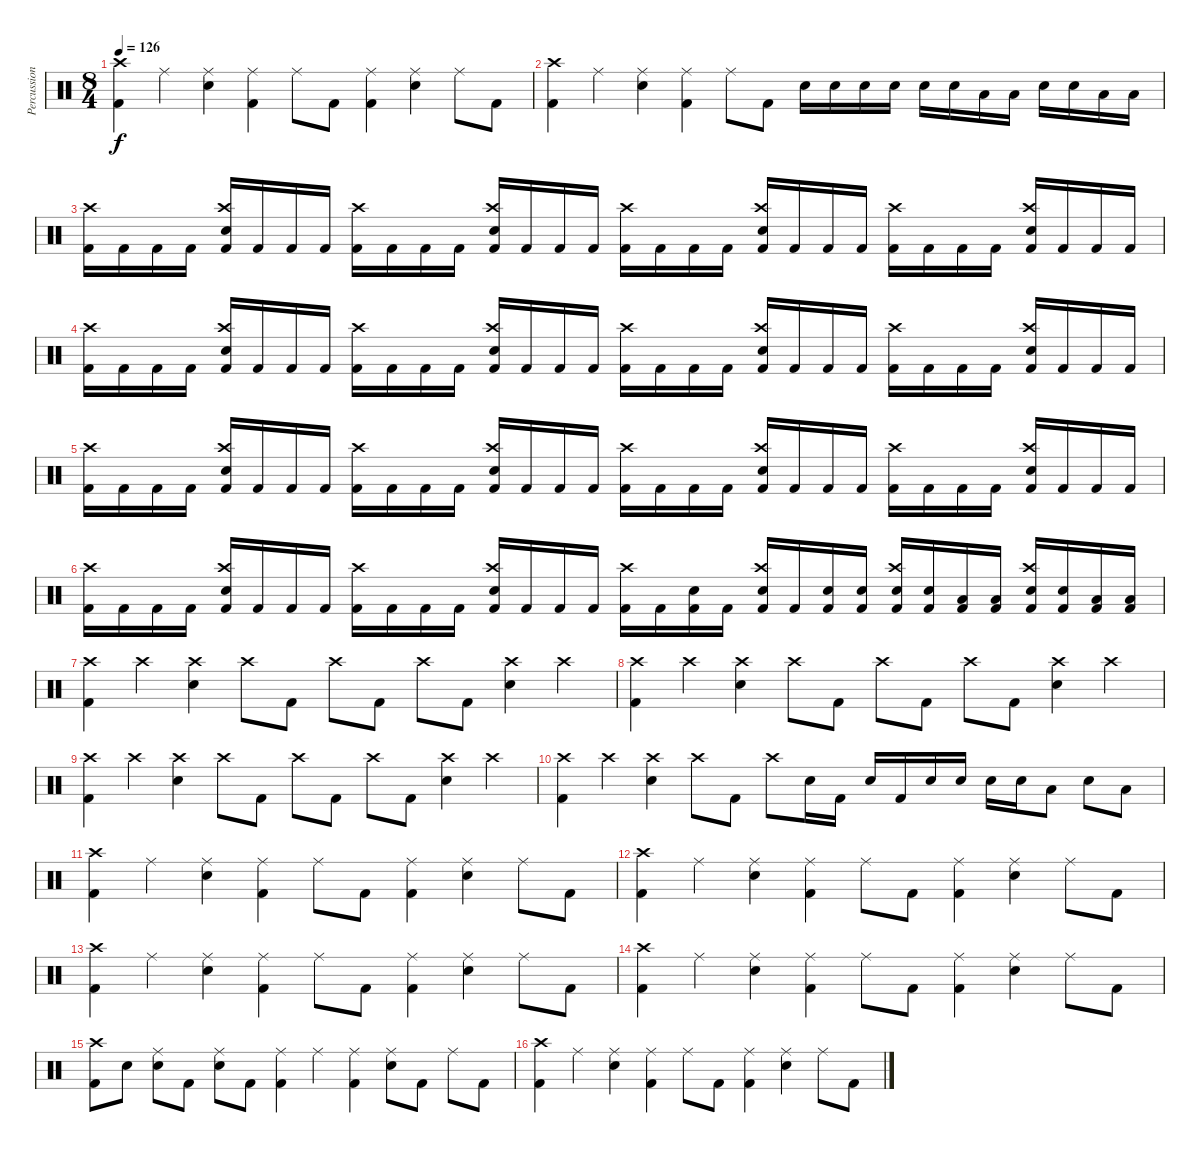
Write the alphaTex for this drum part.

\track ("Percussion" "Percussion") {instrument percussion}
\staff {score}
\articulation defaults
\ts (8 4)
\tempo 126
\clef neutral
\ks c
("Kick (hit) 2" "Crash high (hit)").4{dy f} "Ride (middle)".4 ("Electric Snare (hit)" "Ride (middle)").4 ("Kick (hit) 2" "Ride (middle)").4 "Ride (middle)".8 "Kick (hit) 2".8 ("Kick (hit) 2" "Ride (middle)").4 ("Electric Snare (hit)" "Ride (middle)").4 "Ride (middle)".8 "Kick (hit) 2".8 |
("Kick (hit) 2" "Crash high (hit)").4 "Ride (middle)".4 ("Electric Snare (hit)" "Ride (middle)").4 ("Kick (hit) 2" "Ride (middle)").4 "Ride (middle)".8 "Kick (hit) 2".8 "Electric Snare (hit)".16 "Electric Snare (hit)".16 "Electric Snare (hit)".16 "Electric Snare (hit)".16 "Electric Snare (hit)".16 "Electric Snare (hit)".16 "Low Tom (hit)".16 "Low Tom (hit)".16 "Electric Snare (hit)".16 "Electric Snare (hit)".16 "Low Tom (hit)".16 "Low Tom (hit)".16 |
("Kick (hit) 2" "Crash high (hit)").16 "Kick (hit) 2".16 "Kick (hit) 2".16 "Kick (hit) 2".16 ("Kick (hit) 2" "Electric Snare (hit)" "Crash high (hit)").16 "Kick (hit) 2".16 "Kick (hit) 2".16 "Kick (hit) 2".16 ("Kick (hit) 2" "Crash high (hit)").16 "Kick (hit) 2".16 "Kick (hit) 2".16 "Kick (hit) 2".16 ("Kick (hit) 2" "Electric Snare (hit)" "Crash high (hit)").16 "Kick (hit) 2".16 "Kick (hit) 2".16 "Kick (hit) 2".16 ("Kick (hit) 2" "Crash high (hit)").16 "Kick (hit) 2".16 "Kick (hit) 2".16 "Kick (hit) 2".16 ("Kick (hit) 2" "Electric Snare (hit)" "Crash high (hit)").16 "Kick (hit) 2".16 "Kick (hit) 2".16 "Kick (hit) 2".16 ("Kick (hit) 2" "Crash high (hit)").16 "Kick (hit) 2".16 "Kick (hit) 2".16 "Kick (hit) 2".16 ("Kick (hit) 2" "Electric Snare (hit)" "Crash high (hit)").16 "Kick (hit) 2".16 "Kick (hit) 2".16 "Kick (hit) 2".16 |
("Kick (hit) 2" "Crash high (hit)").16 "Kick (hit) 2".16 "Kick (hit) 2".16 "Kick (hit) 2".16 ("Kick (hit) 2" "Electric Snare (hit)" "Crash high (hit)").16 "Kick (hit) 2".16 "Kick (hit) 2".16 "Kick (hit) 2".16 ("Kick (hit) 2" "Crash high (hit)").16 "Kick (hit) 2".16 "Kick (hit) 2".16 "Kick (hit) 2".16 ("Kick (hit) 2" "Electric Snare (hit)" "Crash high (hit)").16 "Kick (hit) 2".16 "Kick (hit) 2".16 "Kick (hit) 2".16 ("Kick (hit) 2" "Crash high (hit)").16 "Kick (hit) 2".16 "Kick (hit) 2".16 "Kick (hit) 2".16 ("Kick (hit) 2" "Electric Snare (hit)" "Crash high (hit)").16 "Kick (hit) 2".16 "Kick (hit) 2".16 "Kick (hit) 2".16 ("Kick (hit) 2" "Crash high (hit)").16 "Kick (hit) 2".16 "Kick (hit) 2".16 "Kick (hit) 2".16 ("Kick (hit) 2" "Electric Snare (hit)" "Crash high (hit)").16 "Kick (hit) 2".16 "Kick (hit) 2".16 "Kick (hit) 2".16 |
("Kick (hit) 2" "Crash high (hit)").16 "Kick (hit) 2".16 "Kick (hit) 2".16 "Kick (hit) 2".16 ("Kick (hit) 2" "Electric Snare (hit)" "Crash high (hit)").16 "Kick (hit) 2".16 "Kick (hit) 2".16 "Kick (hit) 2".16 ("Kick (hit) 2" "Crash high (hit)").16 "Kick (hit) 2".16 "Kick (hit) 2".16 "Kick (hit) 2".16 ("Kick (hit) 2" "Electric Snare (hit)" "Crash high (hit)").16 "Kick (hit) 2".16 "Kick (hit) 2".16 "Kick (hit) 2".16 ("Kick (hit) 2" "Crash high (hit)").16 "Kick (hit) 2".16 "Kick (hit) 2".16 "Kick (hit) 2".16 ("Kick (hit) 2" "Electric Snare (hit)" "Crash high (hit)").16 "Kick (hit) 2".16 "Kick (hit) 2".16 "Kick (hit) 2".16 ("Kick (hit) 2" "Crash high (hit)").16 "Kick (hit) 2".16 "Kick (hit) 2".16 "Kick (hit) 2".16 ("Kick (hit) 2" "Electric Snare (hit)" "Crash high (hit)").16 "Kick (hit) 2".16 "Kick (hit) 2".16 "Kick (hit) 2".16 |
("Kick (hit) 2" "Crash high (hit)").16 "Kick (hit) 2".16 "Kick (hit) 2".16 "Kick (hit) 2".16 ("Kick (hit) 2" "Electric Snare (hit)" "Crash high (hit)").16 "Kick (hit) 2".16 "Kick (hit) 2".16 "Kick (hit) 2".16 ("Kick (hit) 2" "Crash high (hit)").16 "Kick (hit) 2".16 "Kick (hit) 2".16 "Kick (hit) 2".16 ("Kick (hit) 2" "Electric Snare (hit)" "Crash high (hit)").16 "Kick (hit) 2".16 "Kick (hit) 2".16 "Kick (hit) 2".16 ("Kick (hit) 2" "Crash high (hit)").16 "Kick (hit) 2".16 ("Kick (hit) 2" "Electric Snare (hit)").16 "Kick (hit) 2".16 ("Kick (hit) 2" "Electric Snare (hit)" "Crash high (hit)").16 "Kick (hit) 2".16 ("Kick (hit) 2" "Electric Snare (hit)").16 ("Kick (hit) 2" "Electric Snare (hit)").16 ("Kick (hit) 2" "Electric Snare (hit)" "Crash high (hit)").16 ("Kick (hit) 2" "Electric Snare (hit)").16 ("Kick (hit) 2" "Low Tom (hit)").16 ("Kick (hit) 2" "Low Tom (hit)").16 ("Kick (hit) 2" "Electric Snare (hit)" "Crash high (hit)").16 ("Kick (hit) 2" "Electric Snare (hit)").16 ("Kick (hit) 2" "Low Tom (hit)").16 ("Kick (hit) 2" "Low Tom (hit)").16 |
("Kick (hit) 2" "Crash high (hit)").4 "Crash high (hit)".4 ("Electric Snare (hit)" "Crash high (hit)").4 "Crash high (hit)".8 "Kick (hit) 2".8 "Crash high (hit)".8 "Kick (hit) 2".8 "Crash high (hit)".8 "Kick (hit) 2".8 ("Electric Snare (hit)" "Crash high (hit)").4 "Crash high (hit)".4 |
("Kick (hit) 2" "Crash high (hit)").4 "Crash high (hit)".4 ("Electric Snare (hit)" "Crash high (hit)").4 "Crash high (hit)".8 "Kick (hit) 2".8 "Crash high (hit)".8 "Kick (hit) 2".8 "Crash high (hit)".8 "Kick (hit) 2".8 ("Electric Snare (hit)" "Crash high (hit)").4 "Crash high (hit)".4 |
("Kick (hit) 2" "Crash high (hit)").4 "Crash high (hit)".4 ("Electric Snare (hit)" "Crash high (hit)").4 "Crash high (hit)".8 "Kick (hit) 2".8 "Crash high (hit)".8 "Kick (hit) 2".8 "Crash high (hit)".8 "Kick (hit) 2".8 ("Electric Snare (hit)" "Crash high (hit)").4 "Crash high (hit)".4 |
("Kick (hit) 2" "Crash high (hit)").4 "Crash high (hit)".4 ("Electric Snare (hit)" "Crash high (hit)").4 "Crash high (hit)".8 "Kick (hit) 2".8 "Crash high (hit)".8 "Electric Snare (hit)".16 "Kick (hit) 2".16 "Electric Snare (hit)".16 "Kick (hit) 2".16 "Electric Snare (hit)".16 "Electric Snare (hit)".16 "Electric Snare (hit)".16 "Electric Snare (hit)".16 "Low Tom (hit)".8 "Electric Snare (hit)".8 "Low Tom (hit)".8 |
("Kick (hit) 2" "Crash high (hit)").4 "Ride (middle)".4 ("Electric Snare (hit)" "Ride (middle)").4 ("Kick (hit) 2" "Ride (middle)").4 "Ride (middle)".8 "Kick (hit) 2".8 ("Kick (hit) 2" "Ride (middle)").4 ("Electric Snare (hit)" "Ride (middle)").4 "Ride (middle)".8 "Kick (hit) 2".8 |
("Kick (hit) 2" "Crash high (hit)").4 "Ride (middle)".4 ("Electric Snare (hit)" "Ride (middle)").4 ("Kick (hit) 2" "Ride (middle)").4 "Ride (middle)".8 "Kick (hit) 2".8 ("Kick (hit) 2" "Ride (middle)").4 ("Electric Snare (hit)" "Ride (middle)").4 "Ride (middle)".8 "Kick (hit) 2".8 |
("Kick (hit) 2" "Crash high (hit)").4 "Ride (middle)".4 ("Electric Snare (hit)" "Ride (middle)").4 ("Kick (hit) 2" "Ride (middle)").4 "Ride (middle)".8 "Kick (hit) 2".8 ("Kick (hit) 2" "Ride (middle)").4 ("Electric Snare (hit)" "Ride (middle)").4 "Ride (middle)".8 "Kick (hit) 2".8 |
("Kick (hit) 2" "Crash high (hit)").4 "Ride (middle)".4 ("Electric Snare (hit)" "Ride (middle)").4 ("Kick (hit) 2" "Ride (middle)").4 "Ride (middle)".8 "Kick (hit) 2".8 ("Kick (hit) 2" "Ride (middle)").4 ("Electric Snare (hit)" "Ride (middle)").4 "Ride (middle)".8 "Kick (hit) 2".8 |
("Kick (hit) 2" "Crash high (hit)").8 "Electric Snare (hit)".8 ("Electric Snare (hit)" "Ride (middle)").8 "Kick (hit) 2".8 ("Electric Snare (hit)" "Ride (middle)").8 "Kick (hit) 2".8 ("Kick (hit) 2" "Ride (middle)").4 "Ride (middle)".4 ("Kick (hit) 2" "Ride (middle)").4 ("Electric Snare (hit)" "Ride (middle)").8 "Kick (hit) 2".8 "Ride (middle)".8 "Kick (hit) 2".8 |
("Kick (hit) 2" "Crash high (hit)").4 "Ride (middle)".4 ("Electric Snare (hit)" "Ride (middle)").4 ("Kick (hit) 2" "Ride (middle)").4 "Ride (middle)".8 "Kick (hit) 2".8 ("Kick (hit) 2" "Ride (middle)").4 ("Electric Snare (hit)" "Ride (middle)").4 "Ride (middle)".8 "Kick (hit) 2".8
